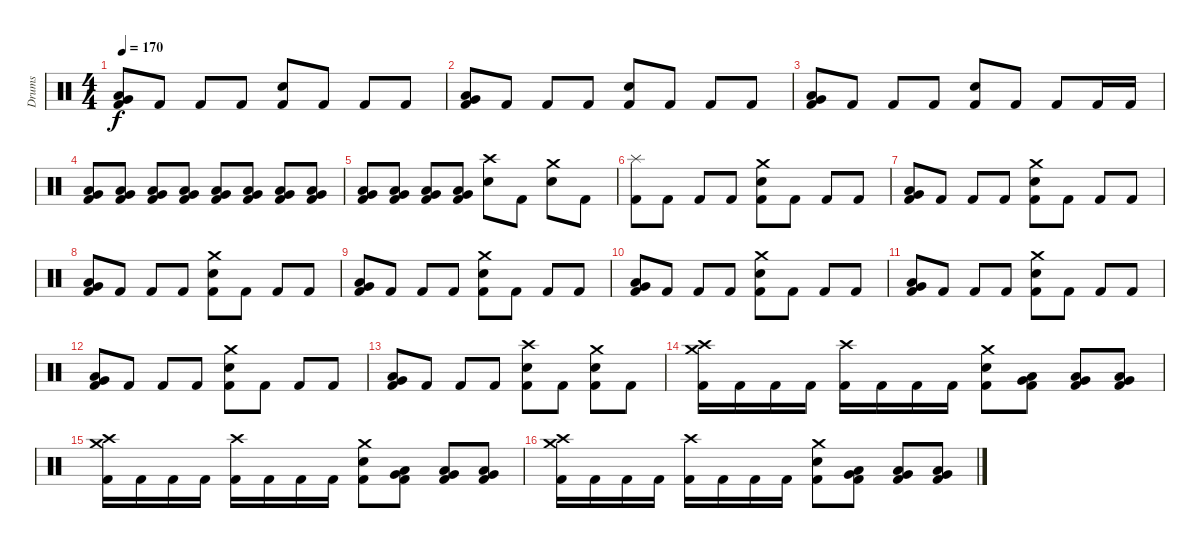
\track ("Drums" "Drums") {instrument percussion}
\staff {score}
\articulation defaults
\ts (4 4)
\tempo 170
\clef neutral
\ks c
("Very Low Tom (hit)" "Low Tom (hit)" "Kick (hit) 2").8{dy f} "Kick (hit) 2".8 "Kick (hit) 2".8 "Kick (hit) 2".8 ("Snare (hit) 2" "Kick (hit) 2").8 "Kick (hit) 2".8 "Kick (hit) 2".8 "Kick (hit) 2".8 |
("Very Low Tom (hit)" "Low Tom (hit)" "Kick (hit) 2").8 "Kick (hit) 2".8 "Kick (hit) 2".8 "Kick (hit) 2".8 ("Snare (hit) 2" "Kick (hit) 2").8 "Kick (hit) 2".8 "Kick (hit) 2".8 "Kick (hit) 2".8 |
("Very Low Tom (hit)" "Low Tom (hit)" "Kick (hit) 2").8 "Kick (hit) 2".8 "Kick (hit) 2".8 "Kick (hit) 2".8 ("Snare (hit) 2" "Kick (hit) 2").8 "Kick (hit) 2".8 "Kick (hit) 2".8 "Kick (hit) 2".16 "Kick (hit) 2".16 |
("Very Low Tom (hit)" "Low Tom (hit)" "Kick (hit) 2").8 ("Very Low Tom (hit)" "Low Tom (hit)" "Kick (hit) 2").8 ("Very Low Tom (hit)" "Low Tom (hit)" "Kick (hit) 2").8 ("Very Low Tom (hit)" "Low Tom (hit)" "Kick (hit) 2").8 ("Very Low Tom (hit)" "Low Tom (hit)" "Kick (hit) 2").8 ("Very Low Tom (hit)" "Low Tom (hit)" "Kick (hit) 2").8 ("Very Low Tom (hit)" "Low Tom (hit)" "Kick (hit) 2").8 ("Very Low Tom (hit)" "Low Tom (hit)" "Kick (hit) 2").8 |
("Very Low Tom (hit)" "Low Tom (hit)" "Kick (hit) 2").8 ("Very Low Tom (hit)" "Low Tom (hit)" "Kick (hit) 2").8 ("Very Low Tom (hit)" "Low Tom (hit)" "Kick (hit) 2").8 ("Very Low Tom (hit)" "Low Tom (hit)" "Kick (hit) 2").8 ("Crash high (hit)" "Snare (hit) 2").8 "Kick (hit) 2".8 ("Crash medium (hit)" "Snare (hit) 2").8 "Kick (hit) 2".8 |
("Splash (hit)" "Kick (hit) 2").8 "Kick (hit) 2".8 "Kick (hit) 2".8 "Kick (hit) 2".8 ("Crash medium (hit)" "Snare (hit) 2" "Kick (hit) 2").8 "Kick (hit) 2".8 "Kick (hit) 2".8 "Kick (hit) 2".8 |
("Very Low Tom (hit)" "Low Tom (hit)" "Kick (hit) 2").8 "Kick (hit) 2".8 "Kick (hit) 2".8 "Kick (hit) 2".8 ("Crash medium (hit)" "Snare (hit) 2" "Kick (hit) 2").8 "Kick (hit) 2".8 "Kick (hit) 2".8 "Kick (hit) 2".8 |
("Very Low Tom (hit)" "Low Tom (hit)" "Kick (hit) 2").8 "Kick (hit) 2".8 "Kick (hit) 2".8 "Kick (hit) 2".8 ("Crash medium (hit)" "Snare (hit) 2" "Kick (hit) 2").8 "Kick (hit) 2".8 "Kick (hit) 2".8 "Kick (hit) 2".8 |
("Very Low Tom (hit)" "Low Tom (hit)" "Kick (hit) 2").8 "Kick (hit) 2".8 "Kick (hit) 2".8 "Kick (hit) 2".8 ("Crash medium (hit)" "Snare (hit) 2" "Kick (hit) 2").8 "Kick (hit) 2".8 "Kick (hit) 2".8 "Kick (hit) 2".8 |
("Very Low Tom (hit)" "Low Tom (hit)" "Kick (hit) 2").8 "Kick (hit) 2".8 "Kick (hit) 2".8 "Kick (hit) 2".8 ("Crash medium (hit)" "Snare (hit) 2" "Kick (hit) 2").8 "Kick (hit) 2".8 "Kick (hit) 2".8 "Kick (hit) 2".8 |
("Very Low Tom (hit)" "Low Tom (hit)" "Kick (hit) 2").8 "Kick (hit) 2".8 "Kick (hit) 2".8 "Kick (hit) 2".8 ("Crash medium (hit)" "Snare (hit) 2" "Kick (hit) 2").8 "Kick (hit) 2".8 "Kick (hit) 2".8 "Kick (hit) 2".8 |
("Very Low Tom (hit)" "Low Tom (hit)" "Kick (hit) 2").8 "Kick (hit) 2".8 "Kick (hit) 2".8 "Kick (hit) 2".8 ("Crash medium (hit)" "Snare (hit) 2" "Kick (hit) 2").8 "Kick (hit) 2".8 "Kick (hit) 2".8 "Kick (hit) 2".8 |
("Very Low Tom (hit)" "Low Tom (hit)" "Kick (hit) 2").8 "Kick (hit) 2".8 "Kick (hit) 2".8 "Kick (hit) 2".8 ("Crash high (hit)" "Snare (hit) 2" "Kick (hit) 2").8 "Kick (hit) 2".8 ("Crash medium (hit)" "Snare (hit) 2" "Kick (hit) 2").8 "Kick (hit) 2".8 |
("Crash medium (hit)" "Crash high (hit)" "Kick (hit) 2").16 "Kick (hit) 2".16 "Kick (hit) 2".16 "Kick (hit) 2".16 ("Crash high (hit)" "Kick (hit) 2").16 "Kick (hit) 2".16 "Kick (hit) 2".16 "Kick (hit) 2".16 ("Crash medium (hit)" "Snare (hit) 2" "Kick (hit) 2").8 ("Very Low Tom (hit)" "Low Tom (hit)" "Kick (hit) 2").8 ("Very Low Tom (hit)" "Low Tom (hit)" "Kick (hit) 2").8 ("Very Low Tom (hit)" "Low Tom (hit)" "Kick (hit) 2").8 |
("Crash medium (hit)" "Crash high (hit)" "Kick (hit) 2").16 "Kick (hit) 2".16 "Kick (hit) 2".16 "Kick (hit) 2".16 ("Crash high (hit)" "Kick (hit) 2").16 "Kick (hit) 2".16 "Kick (hit) 2".16 "Kick (hit) 2".16 ("Crash medium (hit)" "Snare (hit) 2" "Kick (hit) 2").8 ("Very Low Tom (hit)" "Low Tom (hit)" "Kick (hit) 2").8 ("Very Low Tom (hit)" "Low Tom (hit)" "Kick (hit) 2").8 ("Very Low Tom (hit)" "Low Tom (hit)" "Kick (hit) 2").8 |
("Crash medium (hit)" "Crash high (hit)" "Kick (hit) 2").16 "Kick (hit) 2".16 "Kick (hit) 2".16 "Kick (hit) 2".16 ("Crash high (hit)" "Kick (hit) 2").16 "Kick (hit) 2".16 "Kick (hit) 2".16 "Kick (hit) 2".16 ("Crash medium (hit)" "Snare (hit) 2" "Kick (hit) 2").8 ("Very Low Tom (hit)" "Low Tom (hit)" "Kick (hit) 2").8 ("Very Low Tom (hit)" "Low Tom (hit)" "Kick (hit) 2").8 ("Very Low Tom (hit)" "Low Tom (hit)" "Kick (hit) 2").8
